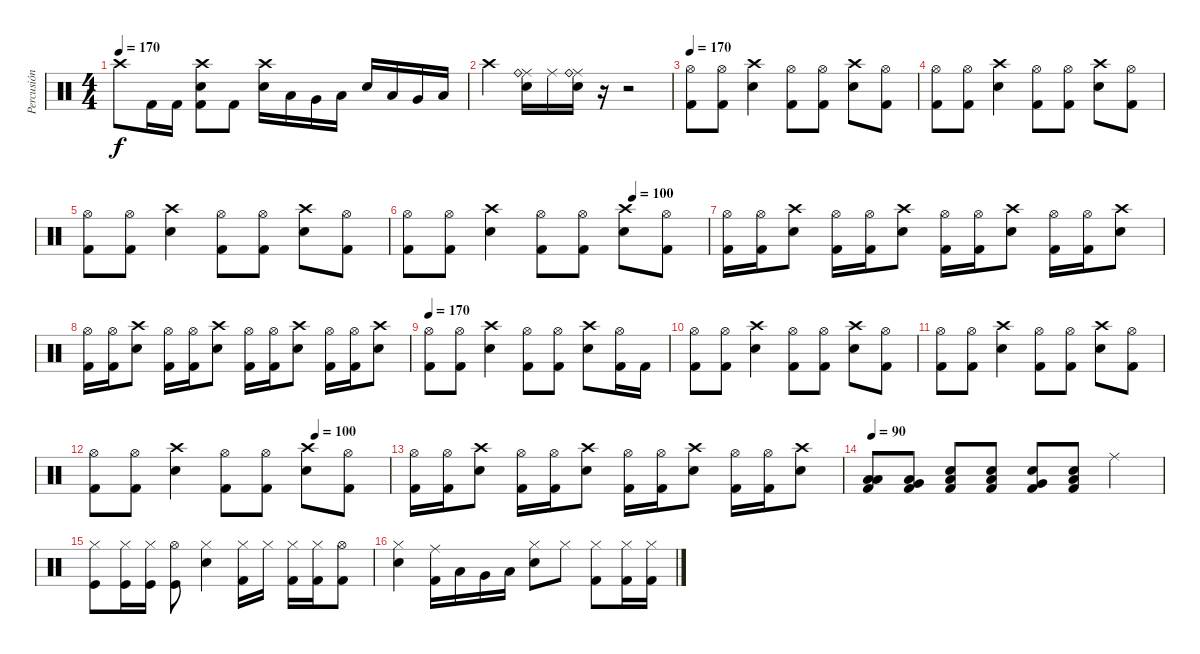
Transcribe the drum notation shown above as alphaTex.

\track ("Percusión" "Percusión") {instrument percussion}
\staff {score}
\articulation defaults
\ts (4 4)
\tempo 170
\clef neutral
\ks c "Crash high (hit)".8{dy f} "Kick (hit) 2".16 "Kick (hit) 2".16
("Crash high (hit)" "Electric Snare (hit)" "Kick (hit) 2").8 "Kick (hit) 2".8 ("Crash high (hit)" "Electric Snare (hit)").16 "Low Tom (hit)".16 "Very Low Tom (hit)".16 "Low Floor Tom (hit)".16 "Electric Snare (hit)".16 "Low Tom (hit)".16 "Very Low Tom (hit)".16 "Low Floor Tom (hit)".16 |
"Crash high (hit)".4 ("Ride (middle)" "Ride (bell)" "Metronome (bell)").16 "Ride (middle)".16 ("Ride (middle)" "Ride (bell)" "Metronome (bell)").16 r.16 r.2 |
\tempo 170
("Hi-Hat (open)" "Kick (hit) 2").8 ("Hi-Hat (open)" "Kick (hit) 2").8 ("Crash high (hit)" "Electric Snare (hit)").4 ("Hi-Hat (open)" "Kick (hit) 2").8 ("Hi-Hat (open)" "Kick (hit) 2").8 ("Crash high (hit)" "Electric Snare (hit)").8 ("Hi-Hat (open)" "Kick (hit) 2").8 |
("Hi-Hat (open)" "Kick (hit) 2").8 ("Hi-Hat (open)" "Kick (hit) 2").8 ("Crash high (hit)" "Electric Snare (hit)").4 ("Hi-Hat (open)" "Kick (hit) 2").8 ("Hi-Hat (open)" "Kick (hit) 2").8 ("Crash high (hit)" "Electric Snare (hit)").8 ("Hi-Hat (open)" "Kick (hit) 2").8 |
("Hi-Hat (open)" "Kick (hit) 2").8 ("Hi-Hat (open)" "Kick (hit) 2").8 ("Crash high (hit)" "Electric Snare (hit)").4 ("Hi-Hat (open)" "Kick (hit) 2").8 ("Hi-Hat (open)" "Kick (hit) 2").8 ("Crash high (hit)" "Electric Snare (hit)").8 ("Hi-Hat (open)" "Kick (hit) 2").8 |
\tempo (100 0.75)
("Hi-Hat (open)" "Kick (hit) 2").8 ("Hi-Hat (open)" "Kick (hit) 2").8 ("Crash high (hit)" "Electric Snare (hit)").4 ("Hi-Hat (open)" "Kick (hit) 2").8 ("Hi-Hat (open)" "Kick (hit) 2").8 ("Crash high (hit)" "Electric Snare (hit)").8 ("Hi-Hat (open)" "Kick (hit) 2").8 |
("Hi-Hat (open)" "Kick (hit) 2").16 ("Hi-Hat (open)" "Kick (hit) 2").16 ("Crash high (hit)" "Electric Snare (hit)").8 ("Hi-Hat (open)" "Kick (hit) 2").16 ("Hi-Hat (open)" "Kick (hit) 2").16 ("Crash high (hit)" "Electric Snare (hit)").8 ("Hi-Hat (open)" "Kick (hit) 2").16 ("Hi-Hat (open)" "Kick (hit) 2").16 ("Crash high (hit)" "Electric Snare (hit)").8 ("Hi-Hat (open)" "Kick (hit) 2").16 ("Hi-Hat (open)" "Kick (hit) 2").16 ("Crash high (hit)" "Electric Snare (hit)").8 |
("Hi-Hat (open)" "Kick (hit) 2").16 ("Hi-Hat (open)" "Kick (hit) 2").16 ("Crash high (hit)" "Electric Snare (hit)").8 ("Hi-Hat (open)" "Kick (hit) 2").16 ("Hi-Hat (open)" "Kick (hit) 2").16 ("Crash high (hit)" "Electric Snare (hit)").8 ("Hi-Hat (open)" "Kick (hit) 2").16 ("Hi-Hat (open)" "Kick (hit) 2").16 ("Crash high (hit)" "Electric Snare (hit)").8 ("Hi-Hat (open)" "Kick (hit) 2").16 ("Hi-Hat (open)" "Kick (hit) 2").16 ("Crash high (hit)" "Electric Snare (hit)").8 |
\tempo 170
("Hi-Hat (open)" "Kick (hit) 2").8 ("Hi-Hat (open)" "Kick (hit) 2").8 ("Crash high (hit)" "Electric Snare (hit)").4 ("Hi-Hat (open)" "Kick (hit) 2").8 ("Hi-Hat (open)" "Kick (hit) 2").8 ("Crash high (hit)" "Electric Snare (hit)").8 ("Hi-Hat (open)" "Kick (hit) 2").16 "Kick (hit) 2".16 |
("Hi-Hat (open)" "Kick (hit) 2").8 ("Hi-Hat (open)" "Kick (hit) 2").8 ("Crash high (hit)" "Electric Snare (hit)").4 ("Hi-Hat (open)" "Kick (hit) 2").8 ("Hi-Hat (open)" "Kick (hit) 2").8 ("Crash high (hit)" "Electric Snare (hit)").8 ("Hi-Hat (open)" "Kick (hit) 2").8 |
("Hi-Hat (open)" "Kick (hit) 2").8 ("Hi-Hat (open)" "Kick (hit) 2").8 ("Crash high (hit)" "Electric Snare (hit)").4 ("Hi-Hat (open)" "Kick (hit) 2").8 ("Hi-Hat (open)" "Kick (hit) 2").8 ("Crash high (hit)" "Electric Snare (hit)").8 ("Hi-Hat (open)" "Kick (hit) 2").8 |
\tempo (100 0.75)
("Hi-Hat (open)" "Kick (hit) 2").8 ("Hi-Hat (open)" "Kick (hit) 2").8 ("Crash high (hit)" "Electric Snare (hit)").4 ("Hi-Hat (open)" "Kick (hit) 2").8 ("Hi-Hat (open)" "Kick (hit) 2").8 ("Crash high (hit)" "Electric Snare (hit)").8 ("Hi-Hat (open)" "Kick (hit) 2").8 |
("Hi-Hat (open)" "Kick (hit) 2").16 ("Hi-Hat (open)" "Kick (hit) 2").16 ("Crash high (hit)" "Electric Snare (hit)").8 ("Hi-Hat (open)" "Kick (hit) 2").16 ("Hi-Hat (open)" "Kick (hit) 2").16 ("Crash high (hit)" "Electric Snare (hit)").8 ("Hi-Hat (open)" "Kick (hit) 2").16 ("Hi-Hat (open)" "Kick (hit) 2").16 ("Crash high (hit)" "Electric Snare (hit)").8 ("Hi-Hat (open)" "Kick (hit) 2").16 ("Hi-Hat (open)" "Kick (hit) 2").16 ("Crash high (hit)" "Electric Snare (hit)").8 |
\tempo 90
("Low Tom (hit)" "Low Floor Tom (hit)" "Kick (hit) 2").8 ("Very Low Tom (hit)" "Low Tom (hit)" "Kick (hit) 2").8 ("Electric Snare (hit)" "Low Tom (hit)" "Kick (hit) 2").8 ("Electric Snare (hit)" "Low Floor Tom (hit)" "Kick (hit) 2").8 ("Electric Snare (hit)" "Very Low Tom (hit)" "Kick (hit) 2").8 ("Electric Snare (hit)" "Low Tom (hit)" "Kick (hit) 2").8 "Ride (middle)".4 |
("Hi-Hat (closed)" "Kick (hit)").8 ("Hi-Hat (closed)" "Kick (hit)").16 ("Hi-Hat (closed)" "Kick (hit)").16 ("Hi-Hat (open)" "Kick (hit)").8 ("Hi-Hat (closed)" "Electric Snare (hit)").4 ("Hi-Hat (closed)" "Kick (hit) 2").16 "Hi-Hat (closed)".16 ("Hi-Hat (closed)" "Kick (hit) 2").16 ("Hi-Hat (closed)" "Kick (hit) 2").16 ("Hi-Hat (open)" "Kick (hit) 2").8 |
("Hi-Hat (closed)" "Electric Snare (hit)").4 ("Ride (middle)" "Kick (hit) 2").16 "Low Tom (hit)".16 "Very Low Tom (hit)".16 "Low Floor Tom (hit)".16 ("Hi-Hat (closed)" "Electric Snare (hit)").8 "Hi-Hat (closed)".8 ("Hi-Hat (closed)" "Kick (hit) 2").8 ("Hi-Hat (closed)" "Kick (hit) 2").16 ("Hi-Hat (closed)" "Kick (hit) 2").16
